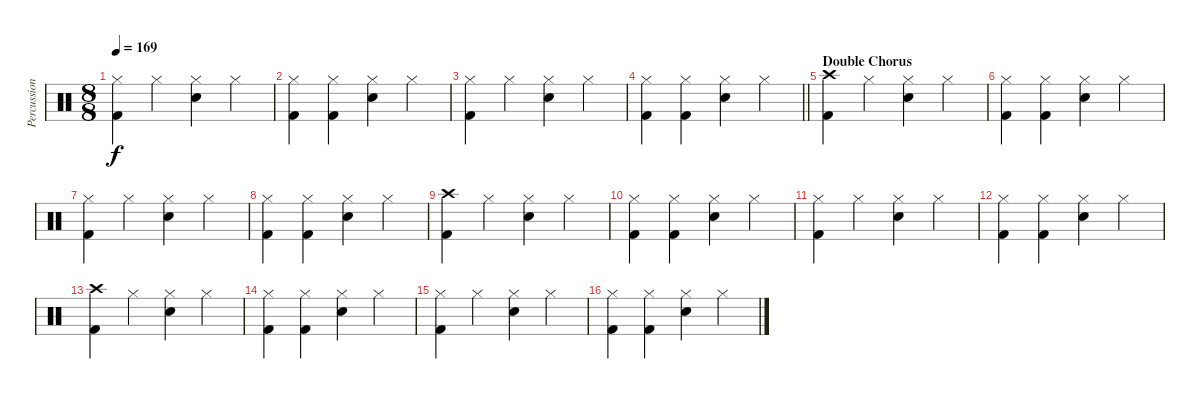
\track ("Percussion" "Percussion") {instrument percussion}
\staff {score}
\articulation defaults
\ts (8 8)
\tempo 169
\clef neutral
\ks c
("Hi-Hat (closed)" "Kick (hit) 2").4{dy f} "Hi-Hat (closed)".4 ("Hi-Hat (closed)" "Snare (hit) 2").4 "Hi-Hat (closed)".4 |
("Hi-Hat (closed)" "Kick (hit) 2").4 ("Hi-Hat (closed)" "Kick (hit) 2").4 ("Hi-Hat (closed)" "Snare (hit) 2").4 "Hi-Hat (closed)".4 |
("Hi-Hat (closed)" "Kick (hit) 2").4 "Hi-Hat (closed)".4 ("Hi-Hat (closed)" "Snare (hit) 2").4 "Hi-Hat (closed)".4 |
\barLineRight lightlight
("Hi-Hat (closed)" "Kick (hit) 2").4 ("Hi-Hat (closed)" "Kick (hit) 2").4 ("Hi-Hat (closed)" "Snare (hit) 2").4 "Hi-Hat (closed)".4 |
\section ("" "Double Chorus")
("Crash high (hit)" "Kick (hit) 2").4 "Hi-Hat (closed)".4 ("Hi-Hat (closed)" "Snare (hit) 2").4 "Hi-Hat (closed)".4 |
("Hi-Hat (closed)" "Kick (hit) 2").4 ("Hi-Hat (closed)" "Kick (hit) 2").4 ("Hi-Hat (closed)" "Snare (hit) 2").4 "Hi-Hat (closed)".4 |
("Hi-Hat (closed)" "Kick (hit) 2").4 "Hi-Hat (closed)".4 ("Hi-Hat (closed)" "Snare (hit) 2").4 "Hi-Hat (closed)".4 |
("Hi-Hat (closed)" "Kick (hit) 2").4 ("Hi-Hat (closed)" "Kick (hit) 2").4 ("Hi-Hat (closed)" "Snare (hit) 2").4 "Hi-Hat (closed)".4 |
("Crash high (hit)" "Kick (hit) 2").4 "Hi-Hat (closed)".4 ("Hi-Hat (closed)" "Snare (hit) 2").4 "Hi-Hat (closed)".4 |
("Hi-Hat (closed)" "Kick (hit) 2").4 ("Hi-Hat (closed)" "Kick (hit) 2").4 ("Hi-Hat (closed)" "Snare (hit) 2").4 "Hi-Hat (closed)".4 |
("Hi-Hat (closed)" "Kick (hit) 2").4 "Hi-Hat (closed)".4 ("Hi-Hat (closed)" "Snare (hit) 2").4 "Hi-Hat (closed)".4 |
("Hi-Hat (closed)" "Kick (hit) 2").4 ("Hi-Hat (closed)" "Kick (hit) 2").4 ("Hi-Hat (closed)" "Snare (hit) 2").4 "Hi-Hat (closed)".4 |
("Crash high (hit)" "Kick (hit) 2").4 "Hi-Hat (closed)".4 ("Hi-Hat (closed)" "Snare (hit) 2").4 "Hi-Hat (closed)".4 |
("Hi-Hat (closed)" "Kick (hit) 2").4 ("Hi-Hat (closed)" "Kick (hit) 2").4 ("Hi-Hat (closed)" "Snare (hit) 2").4 "Hi-Hat (closed)".4 |
("Hi-Hat (closed)" "Kick (hit) 2").4 "Hi-Hat (closed)".4 ("Hi-Hat (closed)" "Snare (hit) 2").4 "Hi-Hat (closed)".4 |
("Hi-Hat (closed)" "Kick (hit) 2").4 ("Hi-Hat (closed)" "Kick (hit) 2").4 ("Hi-Hat (closed)" "Snare (hit) 2").4 "Hi-Hat (closed)".4
